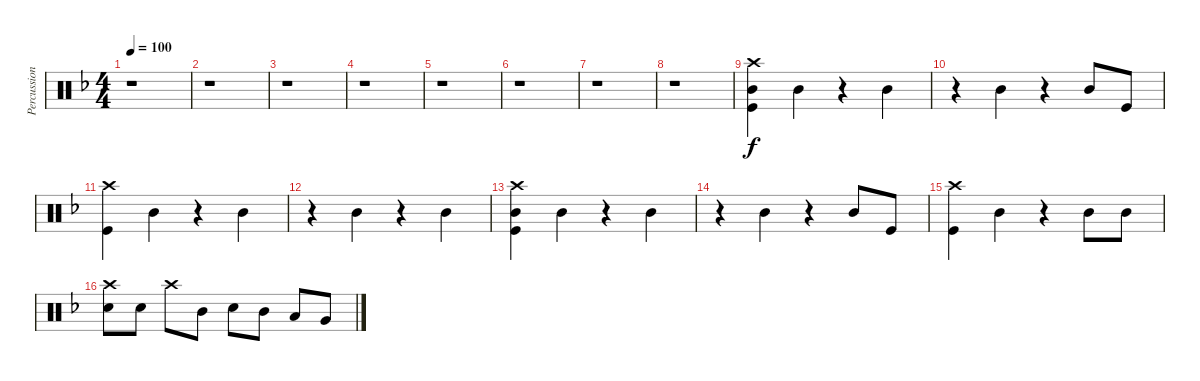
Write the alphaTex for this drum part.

\track ("Percussion" "Percussion") {instrument percussion}
\staff {score}
\articulation defaults
\ts (4 4)
\tempo 100
\clef neutral
\ks dminor
r.1{dy f} |
r.1 |
r.1 |
r.1 |
r.1 |
r.1 |
r.1 |
r.1 |
("Crash high (hit)" "Mid Tom (hit)" "Kick (hit)").4 "Mid Tom (hit)".4 r.4 "Mid Tom (hit)".4 |
r.4 "Mid Tom (hit)".4 r.4 "Mid Tom (hit)".8 "Kick (hit)".8 |
("Crash high (hit)" "Kick (hit)").4 "Mid Tom (hit)".4 r.4 "Mid Tom (hit)".4 |
r.4 "Mid Tom (hit)".4 r.4 "Mid Tom (hit)".4 |
("Crash high (hit)" "Mid Tom (hit)" "Kick (hit)").4 "Mid Tom (hit)".4 r.4 "Mid Tom (hit)".4 |
r.4 "Mid Tom (hit)".4 r.4 "Mid Tom (hit)".8 "Kick (hit)".8 |
("Crash high (hit)" "Kick (hit)").4 "Mid Tom (hit)".4 r.4 "Mid Tom (hit)".8 "Mid Tom (hit)".8 |
("Crash high (hit)" "Snare (hit) 2").8 "Snare (hit) 2".8 "Crash high (hit)".8 "Mid Tom (hit)".8 "Snare (hit) 2".8 "Mid Tom (hit)".8 "Low Tom (hit)".8 "Very Low Tom (hit)".8
